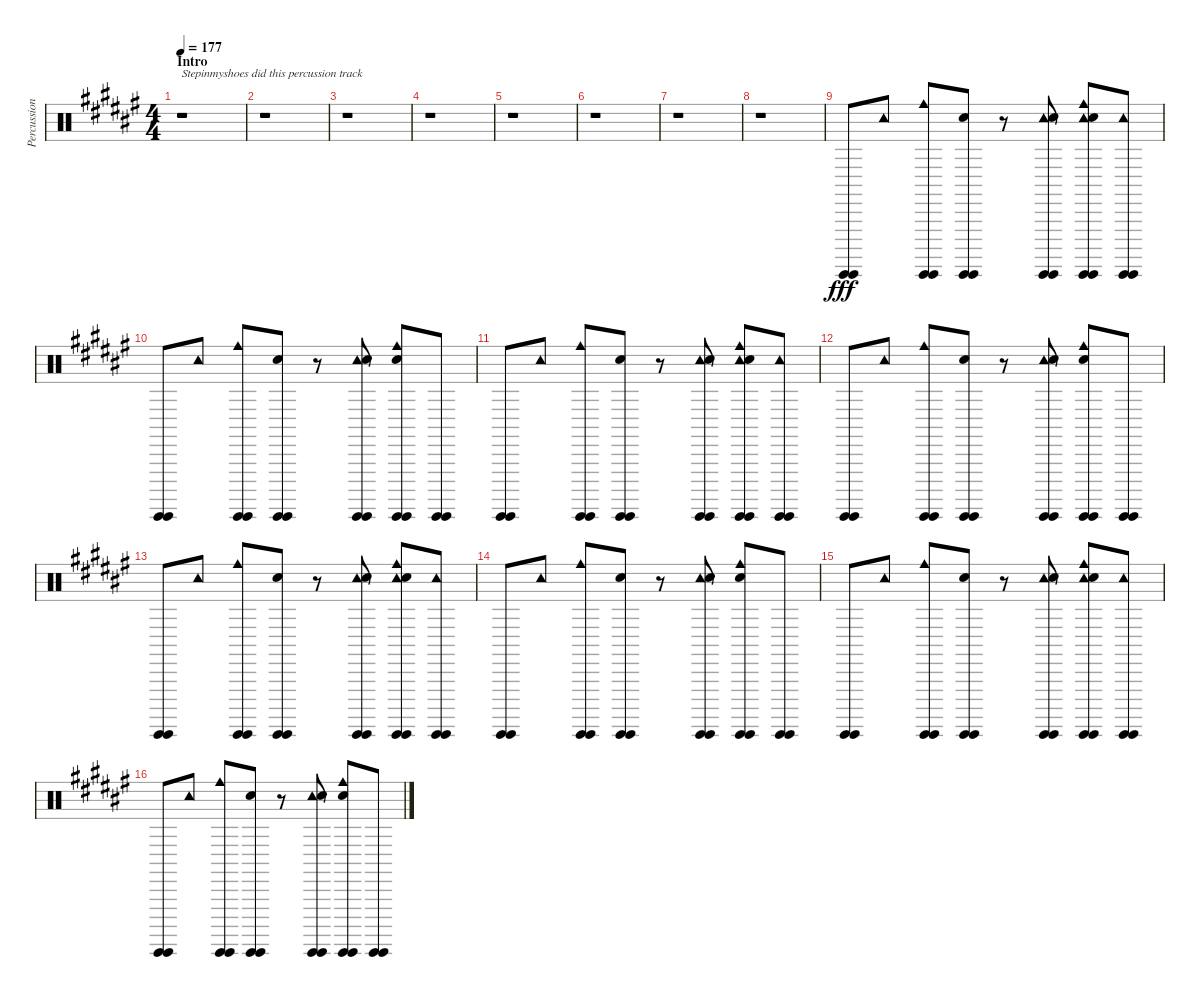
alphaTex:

\track ("Percussion" "Percussion") {instrument percussion}
\staff {score}
\articulation defaults
\ts (4 4)
\section ("" "Intro")
\tempo 177
\clef neutral
\ks d#minor
r.1{txt "Stepinmyshoes did this percussion track" dy fff} |
r.1 |
r.1 |
r.1 |
r.1 |
r.1 |
r.1 |
r.1 |
("Guiro (hit)" "Guiro (hit)").8 "Tambourine (hit)".8 ("Cowbell medium (hit)" "Guiro (hit)" "Guiro (hit)").8 ("Guiro (hit)" "Guiro (hit)" "Hand Clap (hit)").8 r.8 ("Tambourine (hit)" "Guiro (hit)" "Guiro (hit)" "Hand Clap (hit)").8 ("Cowbell medium (hit)" "Tambourine (hit)" "Guiro (hit)" "Guiro (hit)" "Hand Clap (hit)").8 ("Tambourine (hit)" "Guiro (hit)" "Guiro (hit)").8 |
("Guiro (hit)" "Guiro (hit)").8 "Tambourine (hit)".8 ("Cowbell medium (hit)" "Guiro (hit)" "Guiro (hit)").8 ("Guiro (hit)" "Guiro (hit)" "Hand Clap (hit)").8 r.8 ("Tambourine (hit)" "Guiro (hit)" "Guiro (hit)" "Hand Clap (hit)").8 ("Cowbell medium (hit)" "Guiro (hit)" "Guiro (hit)" "Hand Clap (hit)").8 ("Guiro (hit)" "Guiro (hit)").8 |
("Guiro (hit)" "Guiro (hit)").8 "Tambourine (hit)".8 ("Cowbell medium (hit)" "Guiro (hit)" "Guiro (hit)").8 ("Guiro (hit)" "Guiro (hit)" "Hand Clap (hit)").8 r.8 ("Tambourine (hit)" "Guiro (hit)" "Guiro (hit)" "Hand Clap (hit)").8 ("Cowbell medium (hit)" "Tambourine (hit)" "Guiro (hit)" "Guiro (hit)" "Hand Clap (hit)").8 ("Tambourine (hit)" "Guiro (hit)" "Guiro (hit)").8 |
("Guiro (hit)" "Guiro (hit)").8 "Tambourine (hit)".8 ("Cowbell medium (hit)" "Guiro (hit)" "Guiro (hit)").8 ("Guiro (hit)" "Guiro (hit)" "Hand Clap (hit)").8 r.8 ("Tambourine (hit)" "Guiro (hit)" "Guiro (hit)" "Hand Clap (hit)").8 ("Cowbell medium (hit)" "Guiro (hit)" "Guiro (hit)" "Hand Clap (hit)").8 ("Guiro (hit)" "Guiro (hit)").8 |
("Guiro (hit)" "Guiro (hit)").8 "Tambourine (hit)".8 ("Cowbell medium (hit)" "Guiro (hit)" "Guiro (hit)").8 ("Guiro (hit)" "Guiro (hit)" "Hand Clap (hit)").8 r.8 ("Tambourine (hit)" "Guiro (hit)" "Guiro (hit)" "Hand Clap (hit)").8 ("Cowbell medium (hit)" "Tambourine (hit)" "Guiro (hit)" "Guiro (hit)" "Hand Clap (hit)").8 ("Tambourine (hit)" "Guiro (hit)" "Guiro (hit)").8 |
("Guiro (hit)" "Guiro (hit)").8 "Tambourine (hit)".8 ("Cowbell medium (hit)" "Guiro (hit)" "Guiro (hit)").8 ("Guiro (hit)" "Guiro (hit)" "Hand Clap (hit)").8 r.8 ("Tambourine (hit)" "Guiro (hit)" "Guiro (hit)" "Hand Clap (hit)").8 ("Cowbell medium (hit)" "Guiro (hit)" "Guiro (hit)" "Hand Clap (hit)").8 ("Guiro (hit)" "Guiro (hit)").8 |
("Guiro (hit)" "Guiro (hit)").8 "Tambourine (hit)".8 ("Cowbell medium (hit)" "Guiro (hit)" "Guiro (hit)").8 ("Guiro (hit)" "Guiro (hit)" "Hand Clap (hit)").8 r.8 ("Tambourine (hit)" "Guiro (hit)" "Guiro (hit)" "Hand Clap (hit)").8 ("Cowbell medium (hit)" "Tambourine (hit)" "Guiro (hit)" "Guiro (hit)" "Hand Clap (hit)").8 ("Tambourine (hit)" "Guiro (hit)" "Guiro (hit)").8 |
("Guiro (hit)" "Guiro (hit)").8 "Tambourine (hit)".8 ("Cowbell medium (hit)" "Guiro (hit)" "Guiro (hit)").8 ("Guiro (hit)" "Guiro (hit)" "Hand Clap (hit)").8 r.8 ("Tambourine (hit)" "Guiro (hit)" "Guiro (hit)" "Hand Clap (hit)").8 ("Cowbell medium (hit)" "Guiro (hit)" "Guiro (hit)" "Hand Clap (hit)").8 ("Guiro (hit)" "Guiro (hit)").8
